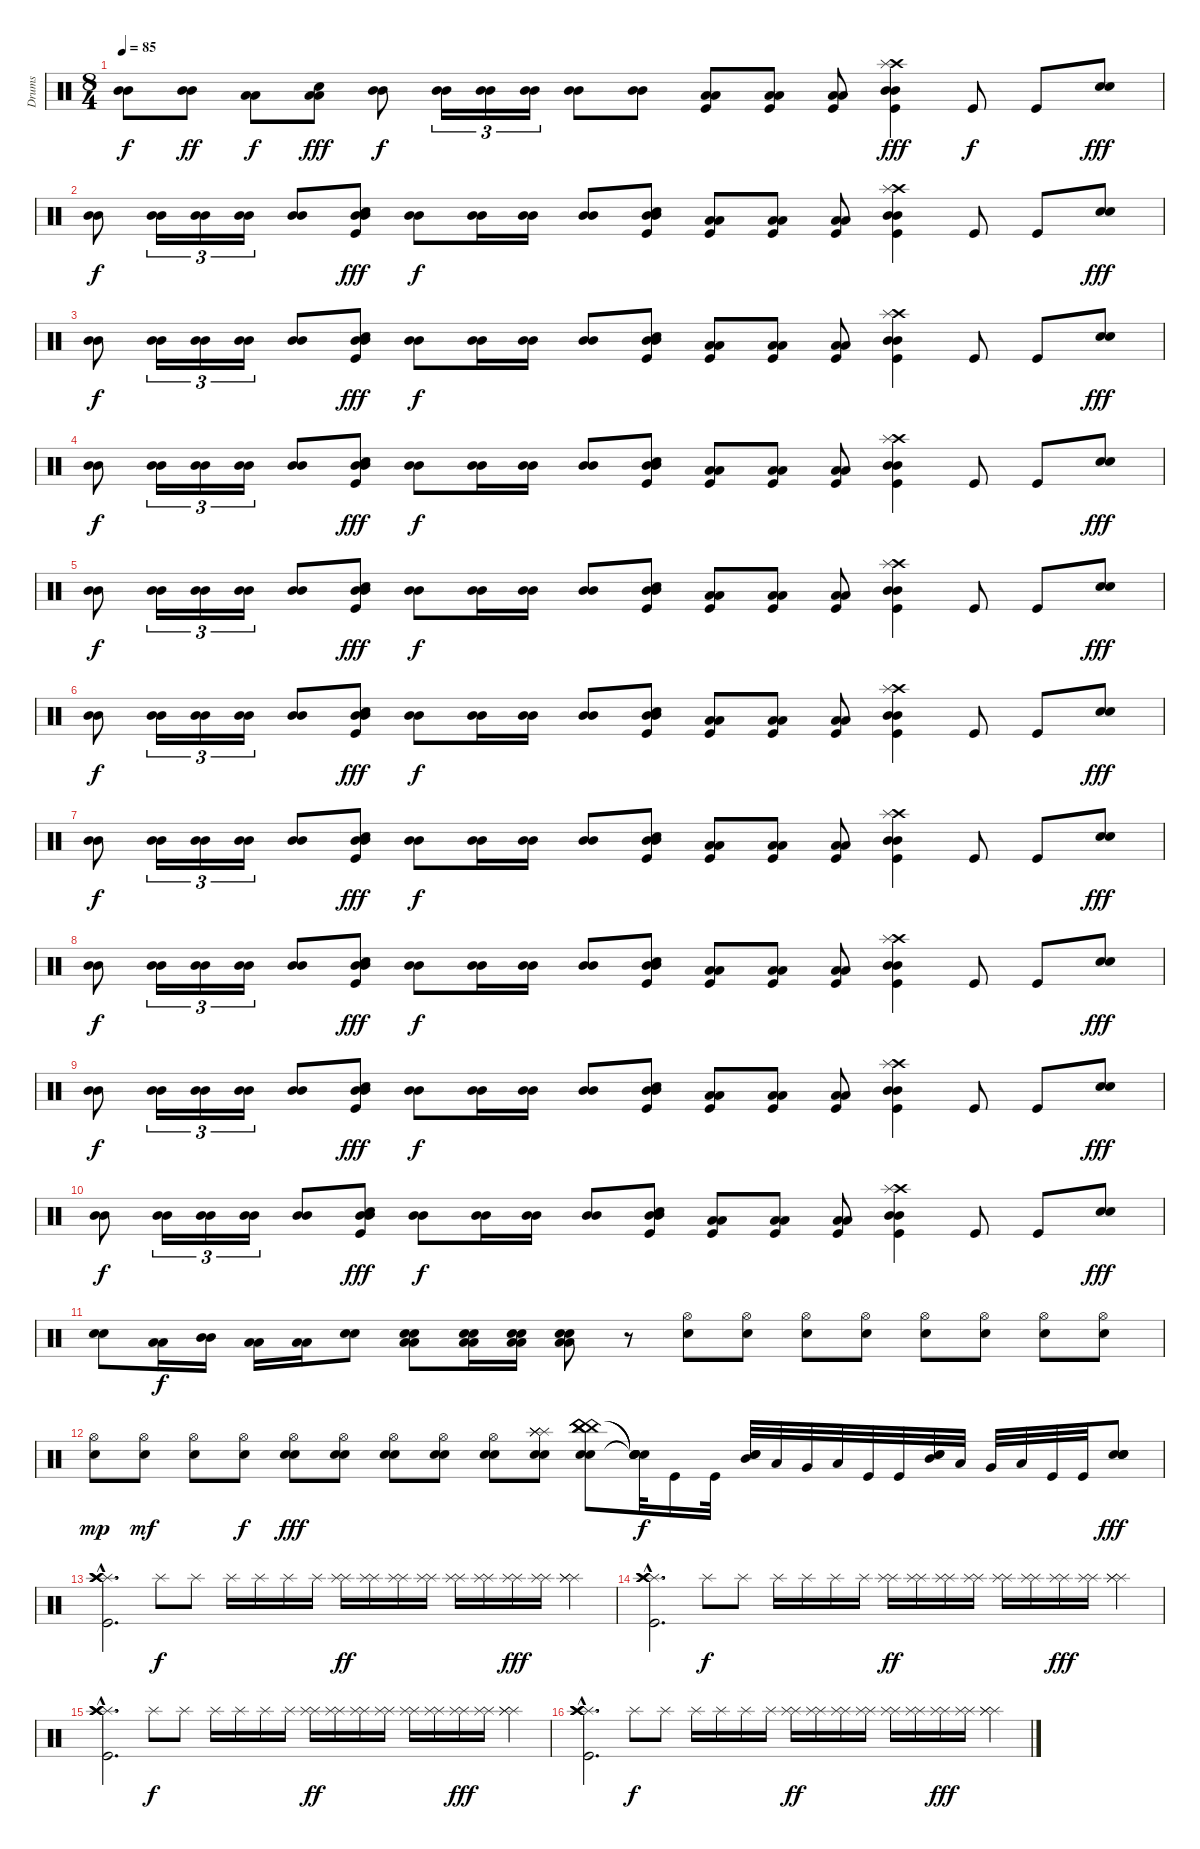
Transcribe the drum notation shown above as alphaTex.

\track ("Drums" "Drums") {instrument percussion}
\staff {score}
\articulation defaults
\ts (8 4)
\tempo 85
\clef neutral
\ks c
("Mid Tom (hit)" "Mid Tom (hit)").8{dy f} ("Mid Tom (hit)" "Mid Tom (hit)").8{dy ff} ("Low Floor Tom (hit)" "Low Floor Tom (hit)").8{dy f} ("Low Floor Tom (hit)" "Low Floor Tom (hit)" "Electric Snare (hit)").8{dy fff} ("Mid Tom (hit)" "Mid Tom (hit)").8{dy f} ("Mid Tom (hit)" "Mid Tom (hit)").16{tu (3 2)} ("Mid Tom (hit)" "Mid Tom (hit)").16{tu (3 2)} ("Mid Tom (hit)" "Mid Tom (hit)").16{tu (3 2)} ("Mid Tom (hit)" "Mid Tom (hit)").8 ("Mid Tom (hit)" "Mid Tom (hit)").8 ("Low Floor Tom (hit)" "Low Floor Tom (hit)" "Kick (hit)").8 ("Low Floor Tom (hit)" "Low Floor Tom (hit)" "Kick (hit)").8 ("Low Floor Tom (hit)" "Low Floor Tom (hit)" "Kick (hit)").8 ("Mid Tom (hit)" "Mid Tom (hit)" "Crash high (hit)" "Splash (hit)" "Kick (hit)").4{dy fff} "Kick (hit)".8{dy f} "Kick (hit)".8 ("Electric Snare (hit)" "Electric Snare (hit)").8{dy fff} |
("Mid Tom (hit)" "Mid Tom (hit)").8{dy f} ("Mid Tom (hit)" "Mid Tom (hit)").16{tu (3 2)} ("Mid Tom (hit)" "Mid Tom (hit)").16{tu (3 2)} ("Mid Tom (hit)" "Mid Tom (hit)").16{tu (3 2)} ("Mid Tom (hit)" "Mid Tom (hit)").8 ("Mid Tom (hit)" "Mid Tom (hit)" "Electric Snare (hit)" "Kick (hit)").8{dy fff} ("Mid Tom (hit)" "Mid Tom (hit)").8{dy f} ("Mid Tom (hit)" "Mid Tom (hit)").16 ("Mid Tom (hit)" "Mid Tom (hit)").16 ("Mid Tom (hit)" "Mid Tom (hit)").8 ("Mid Tom (hit)" "Mid Tom (hit)" "Electric Snare (hit)" "Kick (hit)").8 ("Low Floor Tom (hit)" "Low Floor Tom (hit)" "Kick (hit)").8 ("Low Floor Tom (hit)" "Low Floor Tom (hit)" "Kick (hit)").8 ("Low Floor Tom (hit)" "Low Floor Tom (hit)" "Kick (hit)").8 ("Mid Tom (hit)" "Mid Tom (hit)" "Crash high (hit)" "Splash (hit)" "Kick (hit)").4 "Kick (hit)".8 "Kick (hit)".8 ("Electric Snare (hit)" "Electric Snare (hit)").8{dy fff} |
("Mid Tom (hit)" "Mid Tom (hit)").8{dy f} ("Mid Tom (hit)" "Mid Tom (hit)").16{tu (3 2)} ("Mid Tom (hit)" "Mid Tom (hit)").16{tu (3 2)} ("Mid Tom (hit)" "Mid Tom (hit)").16{tu (3 2)} ("Mid Tom (hit)" "Mid Tom (hit)").8 ("Mid Tom (hit)" "Mid Tom (hit)" "Electric Snare (hit)" "Kick (hit)").8{dy fff} ("Mid Tom (hit)" "Mid Tom (hit)").8{dy f} ("Mid Tom (hit)" "Mid Tom (hit)").16 ("Mid Tom (hit)" "Mid Tom (hit)").16 ("Mid Tom (hit)" "Mid Tom (hit)").8 ("Mid Tom (hit)" "Mid Tom (hit)" "Electric Snare (hit)" "Kick (hit)").8 ("Low Floor Tom (hit)" "Low Floor Tom (hit)" "Kick (hit)").8 ("Low Floor Tom (hit)" "Low Floor Tom (hit)" "Kick (hit)").8 ("Low Floor Tom (hit)" "Low Floor Tom (hit)" "Kick (hit)").8 ("Mid Tom (hit)" "Mid Tom (hit)" "Crash high (hit)" "Splash (hit)" "Kick (hit)").4 "Kick (hit)".8 "Kick (hit)".8 ("Electric Snare (hit)" "Electric Snare (hit)").8{dy fff} |
("Mid Tom (hit)" "Mid Tom (hit)").8{dy f} ("Mid Tom (hit)" "Mid Tom (hit)").16{tu (3 2)} ("Mid Tom (hit)" "Mid Tom (hit)").16{tu (3 2)} ("Mid Tom (hit)" "Mid Tom (hit)").16{tu (3 2)} ("Mid Tom (hit)" "Mid Tom (hit)").8 ("Mid Tom (hit)" "Mid Tom (hit)" "Electric Snare (hit)" "Kick (hit)").8{dy fff} ("Mid Tom (hit)" "Mid Tom (hit)").8{dy f} ("Mid Tom (hit)" "Mid Tom (hit)").16 ("Mid Tom (hit)" "Mid Tom (hit)").16 ("Mid Tom (hit)" "Mid Tom (hit)").8 ("Mid Tom (hit)" "Mid Tom (hit)" "Electric Snare (hit)" "Kick (hit)").8 ("Low Floor Tom (hit)" "Low Floor Tom (hit)" "Kick (hit)").8 ("Low Floor Tom (hit)" "Low Floor Tom (hit)" "Kick (hit)").8 ("Low Floor Tom (hit)" "Low Floor Tom (hit)" "Kick (hit)").8 ("Mid Tom (hit)" "Mid Tom (hit)" "Crash high (hit)" "Splash (hit)" "Kick (hit)").4 "Kick (hit)".8 "Kick (hit)".8 ("Electric Snare (hit)" "Electric Snare (hit)").8{dy fff} |
("Mid Tom (hit)" "Mid Tom (hit)").8{dy f} ("Mid Tom (hit)" "Mid Tom (hit)").16{tu (3 2)} ("Mid Tom (hit)" "Mid Tom (hit)").16{tu (3 2)} ("Mid Tom (hit)" "Mid Tom (hit)").16{tu (3 2)} ("Mid Tom (hit)" "Mid Tom (hit)").8 ("Mid Tom (hit)" "Mid Tom (hit)" "Electric Snare (hit)" "Kick (hit)").8{dy fff} ("Mid Tom (hit)" "Mid Tom (hit)").8{dy f} ("Mid Tom (hit)" "Mid Tom (hit)").16 ("Mid Tom (hit)" "Mid Tom (hit)").16 ("Mid Tom (hit)" "Mid Tom (hit)").8 ("Mid Tom (hit)" "Mid Tom (hit)" "Electric Snare (hit)" "Kick (hit)").8 ("Low Floor Tom (hit)" "Low Floor Tom (hit)" "Kick (hit)").8 ("Low Floor Tom (hit)" "Low Floor Tom (hit)" "Kick (hit)").8 ("Low Floor Tom (hit)" "Low Floor Tom (hit)" "Kick (hit)").8 ("Mid Tom (hit)" "Mid Tom (hit)" "Crash high (hit)" "Splash (hit)" "Kick (hit)").4 "Kick (hit)".8 "Kick (hit)".8 ("Electric Snare (hit)" "Electric Snare (hit)").8{dy fff} |
("Mid Tom (hit)" "Mid Tom (hit)").8{dy f} ("Mid Tom (hit)" "Mid Tom (hit)").16{tu (3 2)} ("Mid Tom (hit)" "Mid Tom (hit)").16{tu (3 2)} ("Mid Tom (hit)" "Mid Tom (hit)").16{tu (3 2)} ("Mid Tom (hit)" "Mid Tom (hit)").8 ("Mid Tom (hit)" "Mid Tom (hit)" "Electric Snare (hit)" "Kick (hit)").8{dy fff} ("Mid Tom (hit)" "Mid Tom (hit)").8{dy f} ("Mid Tom (hit)" "Mid Tom (hit)").16 ("Mid Tom (hit)" "Mid Tom (hit)").16 ("Mid Tom (hit)" "Mid Tom (hit)").8 ("Mid Tom (hit)" "Mid Tom (hit)" "Electric Snare (hit)" "Kick (hit)").8 ("Low Floor Tom (hit)" "Low Floor Tom (hit)" "Kick (hit)").8 ("Low Floor Tom (hit)" "Low Floor Tom (hit)" "Kick (hit)").8 ("Low Floor Tom (hit)" "Low Floor Tom (hit)" "Kick (hit)").8 ("Mid Tom (hit)" "Mid Tom (hit)" "Crash high (hit)" "Splash (hit)" "Kick (hit)").4 "Kick (hit)".8 "Kick (hit)".8 ("Electric Snare (hit)" "Electric Snare (hit)").8{dy fff} |
("Mid Tom (hit)" "Mid Tom (hit)").8{dy f} ("Mid Tom (hit)" "Mid Tom (hit)").16{tu (3 2)} ("Mid Tom (hit)" "Mid Tom (hit)").16{tu (3 2)} ("Mid Tom (hit)" "Mid Tom (hit)").16{tu (3 2)} ("Mid Tom (hit)" "Mid Tom (hit)").8 ("Mid Tom (hit)" "Mid Tom (hit)" "Electric Snare (hit)" "Kick (hit)").8{dy fff} ("Mid Tom (hit)" "Mid Tom (hit)").8{dy f} ("Mid Tom (hit)" "Mid Tom (hit)").16 ("Mid Tom (hit)" "Mid Tom (hit)").16 ("Mid Tom (hit)" "Mid Tom (hit)").8 ("Mid Tom (hit)" "Mid Tom (hit)" "Electric Snare (hit)" "Kick (hit)").8 ("Low Floor Tom (hit)" "Low Floor Tom (hit)" "Kick (hit)").8 ("Low Floor Tom (hit)" "Low Floor Tom (hit)" "Kick (hit)").8 ("Low Floor Tom (hit)" "Low Floor Tom (hit)" "Kick (hit)").8 ("Mid Tom (hit)" "Mid Tom (hit)" "Crash high (hit)" "Splash (hit)" "Kick (hit)").4 "Kick (hit)".8 "Kick (hit)".8 ("Electric Snare (hit)" "Electric Snare (hit)").8{dy fff} |
("Mid Tom (hit)" "Mid Tom (hit)").8{dy f} ("Mid Tom (hit)" "Mid Tom (hit)").16{tu (3 2)} ("Mid Tom (hit)" "Mid Tom (hit)").16{tu (3 2)} ("Mid Tom (hit)" "Mid Tom (hit)").16{tu (3 2)} ("Mid Tom (hit)" "Mid Tom (hit)").8 ("Mid Tom (hit)" "Mid Tom (hit)" "Electric Snare (hit)" "Kick (hit)").8{dy fff} ("Mid Tom (hit)" "Mid Tom (hit)").8{dy f} ("Mid Tom (hit)" "Mid Tom (hit)").16 ("Mid Tom (hit)" "Mid Tom (hit)").16 ("Mid Tom (hit)" "Mid Tom (hit)").8 ("Mid Tom (hit)" "Mid Tom (hit)" "Electric Snare (hit)" "Kick (hit)").8 ("Low Floor Tom (hit)" "Low Floor Tom (hit)" "Kick (hit)").8 ("Low Floor Tom (hit)" "Low Floor Tom (hit)" "Kick (hit)").8 ("Low Floor Tom (hit)" "Low Floor Tom (hit)" "Kick (hit)").8 ("Mid Tom (hit)" "Mid Tom (hit)" "Crash high (hit)" "Splash (hit)" "Kick (hit)").4 "Kick (hit)".8 "Kick (hit)".8 ("Electric Snare (hit)" "Electric Snare (hit)").8{dy fff} |
("Mid Tom (hit)" "Mid Tom (hit)").8{dy f} ("Mid Tom (hit)" "Mid Tom (hit)").16{tu (3 2)} ("Mid Tom (hit)" "Mid Tom (hit)").16{tu (3 2)} ("Mid Tom (hit)" "Mid Tom (hit)").16{tu (3 2)} ("Mid Tom (hit)" "Mid Tom (hit)").8 ("Mid Tom (hit)" "Mid Tom (hit)" "Electric Snare (hit)" "Kick (hit)").8{dy fff} ("Mid Tom (hit)" "Mid Tom (hit)").8{dy f} ("Mid Tom (hit)" "Mid Tom (hit)").16 ("Mid Tom (hit)" "Mid Tom (hit)").16 ("Mid Tom (hit)" "Mid Tom (hit)").8 ("Mid Tom (hit)" "Mid Tom (hit)" "Electric Snare (hit)" "Kick (hit)").8 ("Low Floor Tom (hit)" "Low Floor Tom (hit)" "Kick (hit)").8 ("Low Floor Tom (hit)" "Low Floor Tom (hit)" "Kick (hit)").8 ("Low Floor Tom (hit)" "Low Floor Tom (hit)" "Kick (hit)").8 ("Mid Tom (hit)" "Mid Tom (hit)" "Crash high (hit)" "Splash (hit)" "Kick (hit)").4 "Kick (hit)".8 "Kick (hit)".8 ("Electric Snare (hit)" "Electric Snare (hit)").8{dy fff} |
("Mid Tom (hit)" "Mid Tom (hit)").8{dy f} ("Mid Tom (hit)" "Mid Tom (hit)").16{tu (3 2)} ("Mid Tom (hit)" "Mid Tom (hit)").16{tu (3 2)} ("Mid Tom (hit)" "Mid Tom (hit)").16{tu (3 2)} ("Mid Tom (hit)" "Mid Tom (hit)").8 ("Mid Tom (hit)" "Mid Tom (hit)" "Electric Snare (hit)" "Kick (hit)").8{dy fff} ("Mid Tom (hit)" "Mid Tom (hit)").8{dy f} ("Mid Tom (hit)" "Mid Tom (hit)").16 ("Mid Tom (hit)" "Mid Tom (hit)").16 ("Mid Tom (hit)" "Mid Tom (hit)").8 ("Mid Tom (hit)" "Mid Tom (hit)" "Electric Snare (hit)" "Kick (hit)").8 ("Low Floor Tom (hit)" "Low Floor Tom (hit)" "Kick (hit)").8 ("Low Floor Tom (hit)" "Low Floor Tom (hit)" "Kick (hit)").8 ("Low Floor Tom (hit)" "Low Floor Tom (hit)" "Kick (hit)").8 ("Mid Tom (hit)" "Mid Tom (hit)" "Crash high (hit)" "Splash (hit)" "Kick (hit)").4 "Kick (hit)".8 "Kick (hit)".8 ("Electric Snare (hit)" "Electric Snare (hit)").8{dy fff} |
("Electric Snare (hit)" "Electric Snare (hit)").8 ("Low Floor Tom (hit)" "Low Floor Tom (hit)").16{dy f} ("Mid Tom (hit)" "Mid Tom (hit)").16 ("Low Floor Tom (hit)" "Low Floor Tom (hit)").16 ("Low Floor Tom (hit)" "Low Floor Tom (hit)").16 ("Electric Snare (hit)" "Electric Snare (hit)").8 ("Low Floor Tom (hit)" "Low Floor Tom (hit)" "Electric Snare (hit)" "Electric Snare (hit)").8 ("Low Floor Tom (hit)" "Low Floor Tom (hit)" "Electric Snare (hit)" "Electric Snare (hit)").16 ("Low Floor Tom (hit)" "Low Floor Tom (hit)" "Electric Snare (hit)" "Electric Snare (hit)").16 ("Low Floor Tom (hit)" "Low Floor Tom (hit)" "Electric Snare (hit)" "Electric Snare (hit)").8 r.8{volume 0} ("Hi-Hat (open)" "Electric Snare (hit)").8{volume 8} ("Hi-Hat (open)" "Electric Snare (hit)").8 ("Hi-Hat (open)" "Electric Snare (hit)").8 ("Hi-Hat (open)" "Electric Snare (hit)").8 ("Hi-Hat (open)" "Electric Snare (hit)").8 ("Hi-Hat (open)" "Electric Snare (hit)").8 ("Hi-Hat (open)" "Electric Snare (hit)").8 ("Hi-Hat (open)" "Electric Snare (hit)").8 |
("Hi-Hat (open)" "Electric Snare (hit)").8{dy mp volume 16} ("Hi-Hat (open)" "Electric Snare (hit)").8{dy mf} ("Hi-Hat (open)" "Electric Snare (hit)").8 ("Hi-Hat (open)" "Electric Snare (hit)").8{dy f} ("Hi-Hat (open)" "Electric Snare (hit)" "Electric Snare (hit)").8{dy fff} ("Hi-Hat (open)" "Electric Snare (hit)" "Electric Snare (hit)").8 ("Hi-Hat (open)" "Electric Snare (hit)" "Electric Snare (hit)").8 ("Hi-Hat (open)" "Electric Snare (hit)" "Electric Snare (hit)").8 ("Hi-Hat (open)" "Electric Snare (hit)" "Electric Snare (hit)").8 ("Splash (hit)" "Splash (hit)" "Splash (hit)" "Electric Snare (hit)" "Electric Snare (hit)" "Splash (hit)").8{volume 16} ("China (hit)" "China (hit)" "China (hit)" "Electric Snare (hit)" "Electric Snare (hit)" "China (hit)").8 ("Snare (hit)"{t} "Snare (hit)"{t} "Snare (hit)"{t} "Snare (hit)"{t} "Snare (hit)"{t}).32{dy f} "Kick (hit)".16{volume 16} "Kick (hit)".32 ("Mid Tom (hit)" "Electric Snare (hit)" "Electric Snare (hit)").32 "Low Tom (hit)".32 "Very Low Tom (hit)".32 "Low Floor Tom (hit)".32 "Kick (hit)".32 "Kick (hit)".32 ("Mid Tom (hit)" "Electric Snare (hit)" "Electric Snare (hit)").32 "Low Tom (hit)".32 "Very Low Tom (hit)".32 "Low Floor Tom (hit)".32 "Kick (hit)".32 "Kick (hit)".32 ("Snare (hit) 2" "Electric Snare (hit)" "Electric Snare (hit)" "Electric Snare (hit)").8{dy fff} |
("Splash (hit)"{hac} "Crash high (hit)"{hac} "Crash high (hit)"{hac} "Crash high (hit)"{hac} "Kick (hit)"{hac}).2{d} "Splash (hit)".8{dy f volume 1} "Splash (hit)".8{volume 16} "Splash (hit)".16 "Splash (hit)".16 "Splash (hit)".16 "Splash (hit)".16 ("Splash (hit)" "Splash (hit)").16{dy ff} ("Splash (hit)" "Splash (hit)").16 ("Splash (hit)" "Splash (hit)").16 ("Splash (hit)" "Splash (hit)").16 ("Splash (hit)" "Splash (hit)").16 ("Splash (hit)" "Splash (hit)").16 ("Splash (hit)" "Splash (hit)").16{dy fff} ("Splash (hit)" "Splash (hit)").16 ("Splash (hit)" "Splash (hit)" "Splash (hit)").4 |
("Splash (hit)"{hac} "Crash high (hit)"{hac} "Crash high (hit)"{hac} "Crash high (hit)"{hac} "Kick (hit)"{hac}).2{d} "Splash (hit)".8{dy f volume 1} "Splash (hit)".8{volume 16} "Splash (hit)".16 "Splash (hit)".16 "Splash (hit)".16 "Splash (hit)".16 ("Splash (hit)" "Splash (hit)").16{dy ff} ("Splash (hit)" "Splash (hit)").16 ("Splash (hit)" "Splash (hit)").16 ("Splash (hit)" "Splash (hit)").16 ("Splash (hit)" "Splash (hit)").16 ("Splash (hit)" "Splash (hit)").16 ("Splash (hit)" "Splash (hit)").16{dy fff} ("Splash (hit)" "Splash (hit)").16 ("Splash (hit)" "Splash (hit)" "Splash (hit)").4 |
("Splash (hit)"{hac} "Crash high (hit)"{hac} "Crash high (hit)"{hac} "Crash high (hit)"{hac} "Kick (hit)"{hac}).2{d} "Splash (hit)".8{dy f volume 1} "Splash (hit)".8{volume 16} "Splash (hit)".16 "Splash (hit)".16 "Splash (hit)".16 "Splash (hit)".16 ("Splash (hit)" "Splash (hit)").16{dy ff} ("Splash (hit)" "Splash (hit)").16 ("Splash (hit)" "Splash (hit)").16 ("Splash (hit)" "Splash (hit)").16 ("Splash (hit)" "Splash (hit)").16 ("Splash (hit)" "Splash (hit)").16 ("Splash (hit)" "Splash (hit)").16{dy fff} ("Splash (hit)" "Splash (hit)").16 ("Splash (hit)" "Splash (hit)" "Splash (hit)").4 |
("Splash (hit)"{hac} "Crash high (hit)"{hac} "Crash high (hit)"{hac} "Crash high (hit)"{hac} "Kick (hit)"{hac}).2{d} "Splash (hit)".8{dy f volume 1} "Splash (hit)".8{volume 16} "Splash (hit)".16 "Splash (hit)".16 "Splash (hit)".16 "Splash (hit)".16 ("Splash (hit)" "Splash (hit)").16{dy ff} ("Splash (hit)" "Splash (hit)").16 ("Splash (hit)" "Splash (hit)").16 ("Splash (hit)" "Splash (hit)").16 ("Splash (hit)" "Splash (hit)").16 ("Splash (hit)" "Splash (hit)").16 ("Splash (hit)" "Splash (hit)").16{dy fff} ("Splash (hit)" "Splash (hit)").16 ("Splash (hit)" "Splash (hit)" "Splash (hit)").4
